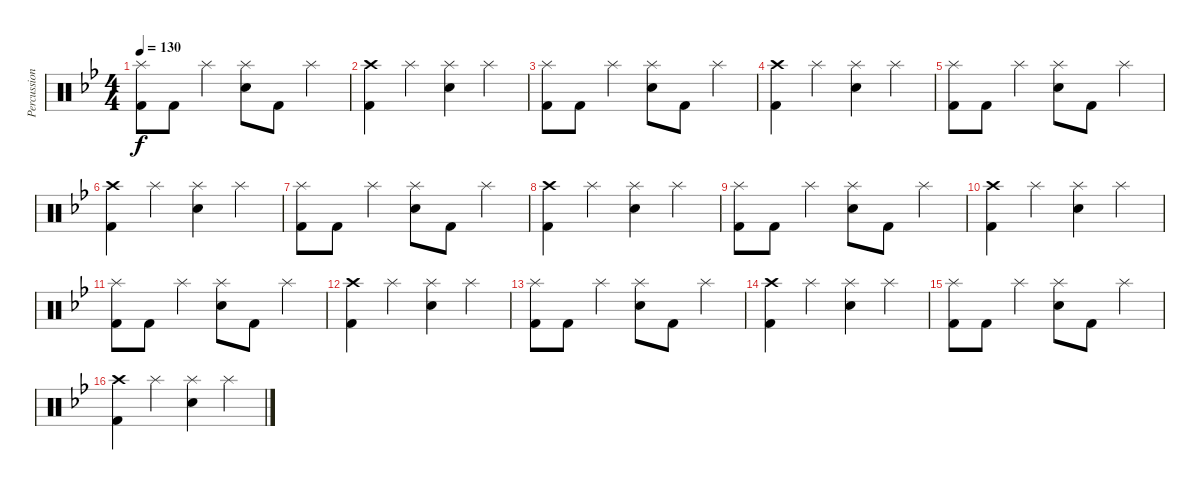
\track ("Percussions" "Percussion") {instrument percussion}
\staff {score}
\articulation defaults
\ts (4 4)
\tempo 130
\clef neutral
\ks gminor
("Splash (hit)" "Kick (hit) 2").8{dy f} "Kick (hit) 2".8 "Splash (hit)".4 ("Splash (hit)" "Electric Snare (hit)").8 "Kick (hit) 2".8 "Splash (hit)".4 |
("Crash high (hit)" "Kick (hit) 2").4 "Splash (hit)".4 ("Splash (hit)" "Electric Snare (hit)").4 "Splash (hit)".4 |
("Splash (hit)" "Kick (hit) 2").8 "Kick (hit) 2".8 "Splash (hit)".4 ("Splash (hit)" "Electric Snare (hit)").8 "Kick (hit) 2".8 "Splash (hit)".4 |
("Crash high (hit)" "Kick (hit) 2").4 "Splash (hit)".4 ("Splash (hit)" "Electric Snare (hit)").4 "Splash (hit)".4 |
("Splash (hit)" "Kick (hit) 2").8 "Kick (hit) 2".8 "Splash (hit)".4 ("Splash (hit)" "Electric Snare (hit)").8 "Kick (hit) 2".8 "Splash (hit)".4 |
("Crash high (hit)" "Kick (hit) 2").4 "Splash (hit)".4 ("Splash (hit)" "Electric Snare (hit)").4 "Splash (hit)".4 |
("Splash (hit)" "Kick (hit) 2").8 "Kick (hit) 2".8 "Splash (hit)".4 ("Splash (hit)" "Electric Snare (hit)").8 "Kick (hit) 2".8 "Splash (hit)".4 |
("Crash high (hit)" "Kick (hit) 2").4 "Splash (hit)".4 ("Splash (hit)" "Electric Snare (hit)").4 "Splash (hit)".4 |
("Splash (hit)" "Kick (hit) 2").8 "Kick (hit) 2".8 "Splash (hit)".4 ("Splash (hit)" "Electric Snare (hit)").8 "Kick (hit) 2".8 "Splash (hit)".4 |
("Crash high (hit)" "Kick (hit) 2").4 "Splash (hit)".4 ("Splash (hit)" "Electric Snare (hit)").4 "Splash (hit)".4 |
("Splash (hit)" "Kick (hit) 2").8 "Kick (hit) 2".8 "Splash (hit)".4 ("Splash (hit)" "Electric Snare (hit)").8 "Kick (hit) 2".8 "Splash (hit)".4 |
("Crash high (hit)" "Kick (hit) 2").4 "Splash (hit)".4 ("Splash (hit)" "Electric Snare (hit)").4 "Splash (hit)".4 |
("Splash (hit)" "Kick (hit) 2").8 "Kick (hit) 2".8 "Splash (hit)".4 ("Splash (hit)" "Electric Snare (hit)").8 "Kick (hit) 2".8 "Splash (hit)".4 |
("Crash high (hit)" "Kick (hit) 2").4 "Splash (hit)".4 ("Splash (hit)" "Electric Snare (hit)").4 "Splash (hit)".4 |
("Splash (hit)" "Kick (hit) 2").8 "Kick (hit) 2".8 "Splash (hit)".4 ("Splash (hit)" "Electric Snare (hit)").8 "Kick (hit) 2".8 "Splash (hit)".4 |
("Crash high (hit)" "Kick (hit) 2").4 "Splash (hit)".4 ("Splash (hit)" "Electric Snare (hit)").4 "Splash (hit)".4
